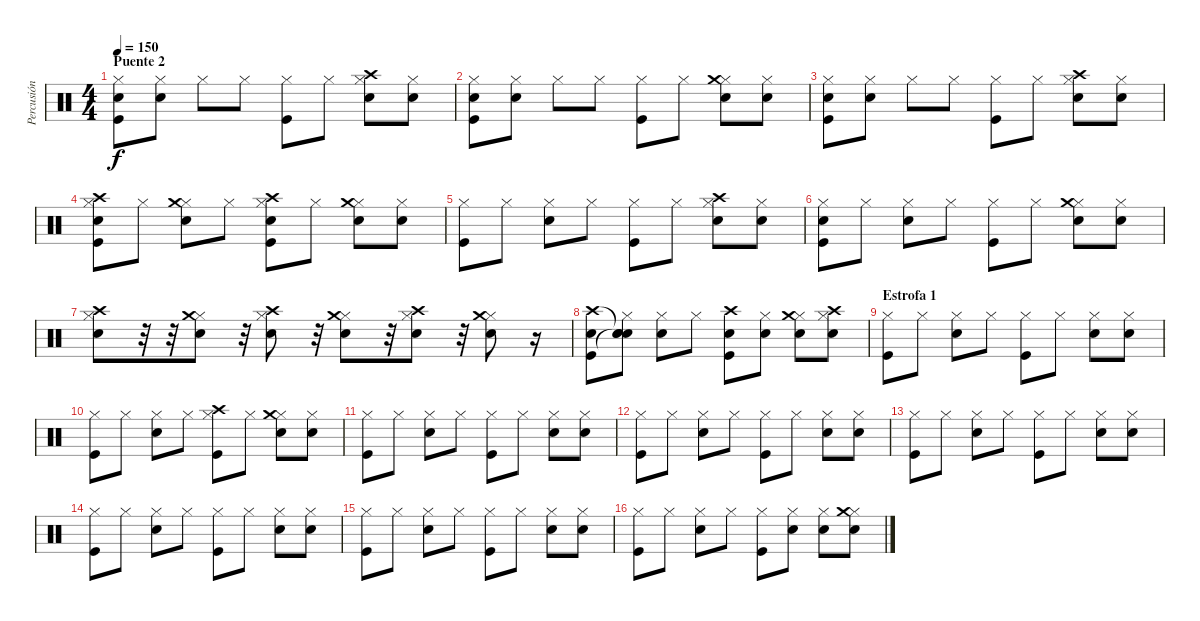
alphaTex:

\track ("Percusión" "Percusión") {instrument percussion}
\staff {score}
\articulation defaults
\ts (4 4)
\section ("" "Puente 2")
\tempo 150
\clef neutral
\ks c
("Hi-Hat (closed)" "Kick (hit)" "Snare (hit) 2").8{dy f} ("Hi-Hat (closed)" "Snare (hit) 2").8 "Hi-Hat (closed)".8 "Hi-Hat (closed)".8 ("Hi-Hat (closed)" "Kick (hit)").8 "Hi-Hat (closed)".8 ("Hi-Hat (closed)" "Snare (hit) 2" "Crash high (hit)").8 ("Hi-Hat (closed)" "Snare (hit) 2").8 |
("Hi-Hat (closed)" "Kick (hit)" "Snare (hit) 2").8 ("Hi-Hat (closed)" "Snare (hit) 2").8 "Hi-Hat (closed)".8 "Hi-Hat (closed)".8 ("Hi-Hat (closed)" "Kick (hit)").8 "Hi-Hat (closed)".8 ("Hi-Hat (closed)" "Snare (hit) 2" "Crash medium (hit)").8 ("Hi-Hat (closed)" "Snare (hit) 2").8 |
("Hi-Hat (closed)" "Kick (hit)" "Snare (hit) 2").8 ("Hi-Hat (closed)" "Snare (hit) 2").8 "Hi-Hat (closed)".8 "Hi-Hat (closed)".8 ("Hi-Hat (closed)" "Kick (hit)").8 "Hi-Hat (closed)".8 ("Hi-Hat (closed)" "Snare (hit) 2" "Crash high (hit)").8 ("Hi-Hat (closed)" "Snare (hit) 2").8 |
("Hi-Hat (closed)" "Kick (hit)" "Snare (hit) 2" "Crash high (hit)").8 "Hi-Hat (closed)".8 ("Hi-Hat (closed)" "Snare (hit) 2" "Crash medium (hit)").8 "Hi-Hat (closed)".8 ("Hi-Hat (closed)" "Kick (hit)" "Snare (hit) 2" "Crash high (hit)").8 "Hi-Hat (closed)".8 ("Hi-Hat (closed)" "Snare (hit) 2" "Crash medium (hit)").8 ("Hi-Hat (closed)" "Snare (hit) 2").8 |
("Hi-Hat (closed)" "Kick (hit)").8 "Hi-Hat (closed)".8 ("Hi-Hat (closed)" "Snare (hit) 2").8 "Hi-Hat (closed)".8 ("Hi-Hat (closed)" "Kick (hit)").8 "Hi-Hat (closed)".8 ("Hi-Hat (closed)" "Snare (hit) 2" "Crash high (hit)").8 ("Hi-Hat (closed)" "Snare (hit) 2").8 |
("Hi-Hat (closed)" "Snare (hit) 2" "Kick (hit)").8 "Hi-Hat (closed)".8 ("Hi-Hat (closed)" "Snare (hit) 2").8 "Hi-Hat (closed)".8 ("Hi-Hat (closed)" "Kick (hit)").8 "Hi-Hat (closed)".8 ("Hi-Hat (closed)" "Snare (hit) 2" "Crash medium (hit)").8 ("Hi-Hat (closed)" "Snare (hit) 2").8 |
("Hi-Hat (closed)" "Snare (hit) 2" "Crash high (hit)").8 r.32 r.32 ("Hi-Hat (closed)" "Snare (hit) 2" "Crash medium (hit)").8 r.32 ("Hi-Hat (closed)" "Snare (hit) 2" "Crash high (hit)").8 r.32 ("Hi-Hat (closed)" "Snare (hit) 2" "Crash medium (hit)").8 r.32 ("Hi-Hat (closed)" "Snare (hit) 2" "Crash high (hit)").8 r.32 ("Hi-Hat (closed)" "Snare (hit) 2" "Crash medium (hit)").8 r.16 |
("Snare (hit) 2" "Kick (hit)" "Crash high (hit)").8 ("Hi-Hat (closed)" "Snare (hit)"{t} "Snare (hit)"{t} "Snare (hit)").8 ("Hi-Hat (closed)" "Snare (hit) 2").8 "Hi-Hat (closed)".8 ("Snare (hit) 2" "Kick (hit)" "Crash high (hit)").8 ("Hi-Hat (closed)" "Snare (hit) 2").8 ("Hi-Hat (closed)" "Snare (hit) 2" "Crash medium (hit)").8 ("Hi-Hat (closed)" "Snare (hit) 2" "Crash high (hit)").8 |
\section ("" "Estrofa 1")
("Hi-Hat (closed)" "Kick (hit)").8 "Hi-Hat (closed)".8 ("Hi-Hat (closed)" "Snare (hit) 2").8 "Hi-Hat (closed)".8 ("Hi-Hat (closed)" "Kick (hit)").8 "Hi-Hat (closed)".8 ("Hi-Hat (closed)" "Snare (hit) 2").8 ("Hi-Hat (closed)" "Snare (hit) 2").8 |
("Hi-Hat (closed)" "Kick (hit)").8 "Hi-Hat (closed)".8 ("Hi-Hat (closed)" "Snare (hit) 2").8 "Hi-Hat (closed)".8 ("Hi-Hat (closed)" "Kick (hit)" "Crash high (hit)").8 "Hi-Hat (closed)".8 ("Hi-Hat (closed)" "Snare (hit) 2" "Crash medium (hit)").8 ("Hi-Hat (closed)" "Snare (hit) 2").8 |
("Hi-Hat (closed)" "Kick (hit)").8 "Hi-Hat (closed)".8 ("Hi-Hat (closed)" "Snare (hit) 2").8 "Hi-Hat (closed)".8 ("Hi-Hat (closed)" "Kick (hit)").8 "Hi-Hat (closed)".8 ("Hi-Hat (closed)" "Snare (hit) 2").8 ("Hi-Hat (closed)" "Snare (hit) 2").8 |
("Hi-Hat (closed)" "Kick (hit)").8 "Hi-Hat (closed)".8 ("Hi-Hat (closed)" "Snare (hit) 2").8 "Hi-Hat (closed)".8 ("Hi-Hat (closed)" "Kick (hit)").8 "Hi-Hat (closed)".8 ("Hi-Hat (closed)" "Snare (hit) 2").8 ("Hi-Hat (closed)" "Snare (hit) 2").8 |
("Hi-Hat (closed)" "Kick (hit)").8 "Hi-Hat (closed)".8 ("Hi-Hat (closed)" "Snare (hit) 2").8 "Hi-Hat (closed)".8 ("Hi-Hat (closed)" "Kick (hit)").8 "Hi-Hat (closed)".8 ("Hi-Hat (closed)" "Snare (hit) 2").8 ("Hi-Hat (closed)" "Snare (hit) 2").8 |
("Hi-Hat (closed)" "Kick (hit)").8 "Hi-Hat (closed)".8 ("Hi-Hat (closed)" "Snare (hit) 2").8 "Hi-Hat (closed)".8 ("Hi-Hat (closed)" "Kick (hit)").8 "Hi-Hat (closed)".8 ("Hi-Hat (closed)" "Snare (hit) 2").8 ("Hi-Hat (closed)" "Snare (hit) 2").8 |
("Hi-Hat (closed)" "Kick (hit)").8 "Hi-Hat (closed)".8 ("Hi-Hat (closed)" "Snare (hit) 2").8 "Hi-Hat (closed)".8 ("Hi-Hat (closed)" "Kick (hit)").8 "Hi-Hat (closed)".8 ("Hi-Hat (closed)" "Snare (hit) 2").8 ("Hi-Hat (closed)" "Snare (hit) 2").8 |
("Hi-Hat (closed)" "Kick (hit)").8 "Hi-Hat (closed)".8 ("Hi-Hat (closed)" "Snare (hit) 2").8 "Hi-Hat (closed)".8 ("Hi-Hat (closed)" "Kick (hit)").8 ("Hi-Hat (closed)" "Snare (hit) 2").8 ("Hi-Hat (closed)" "Snare (hit) 2").8 ("Hi-Hat (closed)" "Snare (hit) 2" "Crash medium (hit)").8
